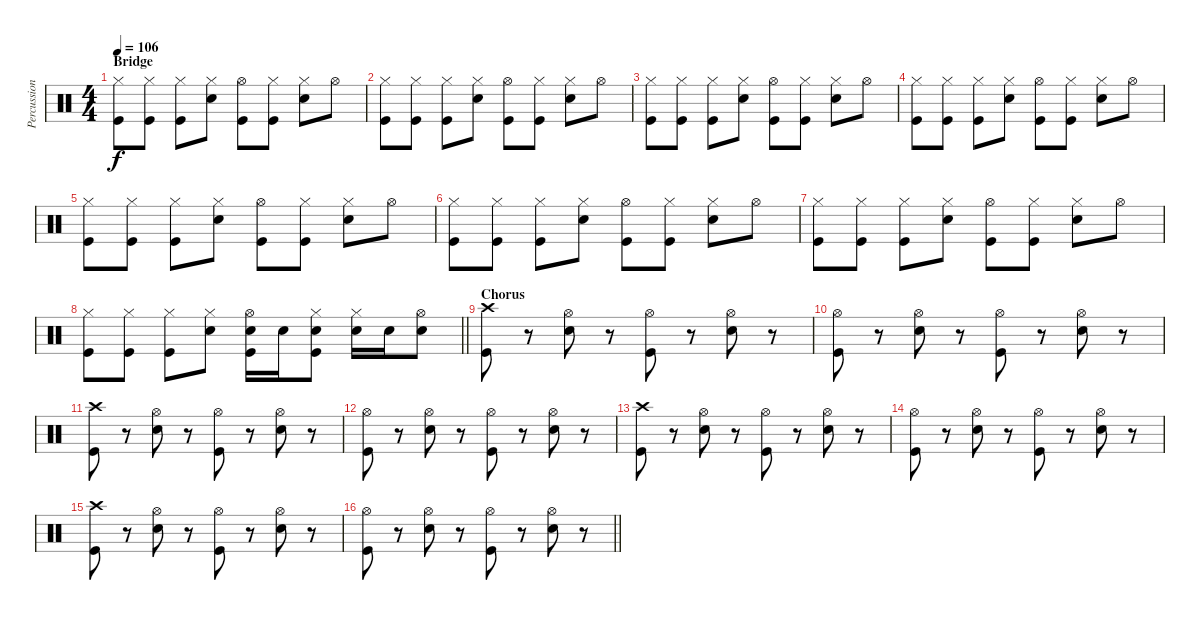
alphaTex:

\track ("Percussion" "Percussion") {instrument percussion}
\staff {score}
\articulation defaults
\ts (4 4)
\section ("" "Bridge")
\tempo 106
\clef neutral
\ks c
("Hi-Hat (closed)" "Kick (hit)").8{dy f} ("Hi-Hat (closed)" "Kick (hit)").8 ("Hi-Hat (closed)" "Kick (hit)").8 ("Hi-Hat (closed)" "Snare (hit) 2").8 ("Hi-Hat (open)" "Kick (hit)").8 ("Hi-Hat (closed)" "Kick (hit)").8 ("Hi-Hat (closed)" "Snare (hit) 2").8 "Hi-Hat (open)".8 |
("Hi-Hat (closed)" "Kick (hit)").8 ("Hi-Hat (closed)" "Kick (hit)").8 ("Hi-Hat (closed)" "Kick (hit)").8 ("Hi-Hat (closed)" "Snare (hit) 2").8 ("Hi-Hat (open)" "Kick (hit)").8 ("Hi-Hat (closed)" "Kick (hit)").8 ("Hi-Hat (closed)" "Snare (hit) 2").8 "Hi-Hat (open)".8 |
("Hi-Hat (closed)" "Kick (hit)").8 ("Hi-Hat (closed)" "Kick (hit)").8 ("Hi-Hat (closed)" "Kick (hit)").8 ("Hi-Hat (closed)" "Snare (hit) 2").8 ("Hi-Hat (open)" "Kick (hit)").8 ("Hi-Hat (closed)" "Kick (hit)").8 ("Hi-Hat (closed)" "Snare (hit) 2").8 "Hi-Hat (open)".8 |
("Hi-Hat (closed)" "Kick (hit)").8 ("Hi-Hat (closed)" "Kick (hit)").8 ("Hi-Hat (closed)" "Kick (hit)").8 ("Hi-Hat (closed)" "Snare (hit) 2").8 ("Hi-Hat (open)" "Kick (hit)").8 ("Hi-Hat (closed)" "Kick (hit)").8 ("Hi-Hat (closed)" "Snare (hit) 2").8 "Hi-Hat (open)".8 |
("Hi-Hat (closed)" "Kick (hit)").8 ("Hi-Hat (closed)" "Kick (hit)").8 ("Hi-Hat (closed)" "Kick (hit)").8 ("Hi-Hat (closed)" "Snare (hit) 2").8 ("Hi-Hat (open)" "Kick (hit)").8 ("Hi-Hat (closed)" "Kick (hit)").8 ("Hi-Hat (closed)" "Snare (hit) 2").8 "Hi-Hat (open)".8 |
("Hi-Hat (closed)" "Kick (hit)").8 ("Hi-Hat (closed)" "Kick (hit)").8 ("Hi-Hat (closed)" "Kick (hit)").8 ("Hi-Hat (closed)" "Snare (hit) 2").8 ("Hi-Hat (open)" "Kick (hit)").8 ("Hi-Hat (closed)" "Kick (hit)").8 ("Hi-Hat (closed)" "Snare (hit) 2").8 "Hi-Hat (open)".8 |
("Hi-Hat (closed)" "Kick (hit)").8 ("Hi-Hat (closed)" "Kick (hit)").8 ("Hi-Hat (closed)" "Kick (hit)").8 ("Hi-Hat (closed)" "Snare (hit) 2").8 ("Hi-Hat (open)" "Kick (hit)").8 ("Hi-Hat (closed)" "Kick (hit)").8 ("Hi-Hat (closed)" "Snare (hit) 2").8 "Hi-Hat (open)".8 |
\barLineRight lightlight
("Hi-Hat (closed)" "Kick (hit)").8 ("Hi-Hat (closed)" "Kick (hit)").8 ("Hi-Hat (closed)" "Kick (hit)").8 ("Hi-Hat (closed)" "Snare (hit) 2").8 ("Hi-Hat (open)" "Snare (hit) 2" "Kick (hit)").16 "Snare (hit) 2".16 ("Hi-Hat (closed)" "Snare (hit) 2" "Kick (hit)").8 ("Hi-Hat (closed)" "Snare (hit) 2").16 "Snare (hit) 2".16 ("Hi-Hat (open)" "Snare (hit) 2").8 |
\section ("" "Chorus")
("Crash high (hit)" "Kick (hit)").8 r.8 ("Hi-Hat (open)" "Snare (hit) 2").8 r.8 ("Hi-Hat (open)" "Kick (hit)").8 r.8 ("Hi-Hat (open)" "Snare (hit) 2").8 r.8 |
("Hi-Hat (open)" "Kick (hit)").8 r.8 ("Hi-Hat (open)" "Snare (hit) 2").8 r.8 ("Hi-Hat (open)" "Kick (hit)").8 r.8 ("Hi-Hat (open)" "Snare (hit) 2").8 r.8 |
("Crash high (hit)" "Kick (hit)").8 r.8 ("Hi-Hat (open)" "Snare (hit) 2").8 r.8 ("Hi-Hat (open)" "Kick (hit)").8 r.8 ("Hi-Hat (open)" "Snare (hit) 2").8 r.8 |
("Hi-Hat (open)" "Kick (hit)").8 r.8 ("Hi-Hat (open)" "Snare (hit) 2").8 r.8 ("Hi-Hat (open)" "Kick (hit)").8 r.8 ("Hi-Hat (open)" "Snare (hit) 2").8 r.8 |
("Crash high (hit)" "Kick (hit)").8 r.8 ("Hi-Hat (open)" "Snare (hit) 2").8 r.8 ("Hi-Hat (open)" "Kick (hit)").8 r.8 ("Hi-Hat (open)" "Snare (hit) 2").8 r.8 |
("Hi-Hat (open)" "Kick (hit)").8 r.8 ("Hi-Hat (open)" "Snare (hit) 2").8 r.8 ("Hi-Hat (open)" "Kick (hit)").8 r.8 ("Hi-Hat (open)" "Snare (hit) 2").8 r.8 |
("Crash high (hit)" "Kick (hit)").8 r.8 ("Hi-Hat (open)" "Snare (hit) 2").8 r.8 ("Hi-Hat (open)" "Kick (hit)").8 r.8 ("Hi-Hat (open)" "Snare (hit) 2").8 r.8 |
\barLineRight lightlight
("Hi-Hat (open)" "Kick (hit)").8 r.8 ("Hi-Hat (open)" "Snare (hit) 2").8 r.8 ("Hi-Hat (open)" "Kick (hit)").8 r.8 ("Hi-Hat (open)" "Snare (hit) 2").8 r.8
